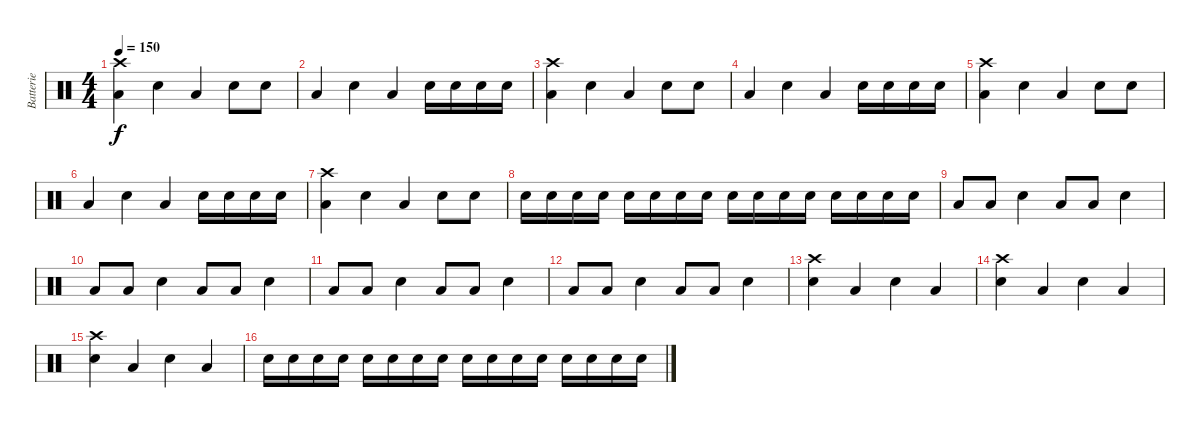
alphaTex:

\track ("Batterie" "Batterie") {instrument percussion}
\staff {score}
\articulation defaults
\ts (4 4)
\tempo 150
\clef neutral
\ks c
("Crash high (hit)" "Low Tom (hit)").4{dy f} "Snare (hit) 2".4 "Low Tom (hit)".4 "Snare (hit) 2".8 "Snare (hit) 2".8 |
"Low Tom (hit)".4 "Snare (hit) 2".4 "Low Tom (hit)".4 "Snare (hit) 2".16 "Snare (hit) 2".16 "Snare (hit) 2".16 "Snare (hit) 2".16 |
("Crash high (hit)" "Low Tom (hit)").4 "Snare (hit) 2".4 "Low Tom (hit)".4 "Snare (hit) 2".8 "Snare (hit) 2".8 |
"Low Tom (hit)".4 "Snare (hit) 2".4 "Low Tom (hit)".4 "Snare (hit) 2".16 "Snare (hit) 2".16 "Snare (hit) 2".16 "Snare (hit) 2".16 |
("Crash high (hit)" "Low Tom (hit)").4 "Snare (hit) 2".4 "Low Tom (hit)".4 "Snare (hit) 2".8 "Snare (hit) 2".8 |
"Low Tom (hit)".4 "Snare (hit) 2".4 "Low Tom (hit)".4 "Snare (hit) 2".16 "Snare (hit) 2".16 "Snare (hit) 2".16 "Snare (hit) 2".16 |
("Crash high (hit)" "Low Tom (hit)").4 "Snare (hit) 2".4 "Low Tom (hit)".4 "Snare (hit) 2".8 "Snare (hit) 2".8 |
"Snare (hit) 2".16 "Snare (hit) 2".16 "Snare (hit) 2".16 "Snare (hit) 2".16 "Snare (hit) 2".16 "Snare (hit) 2".16 "Snare (hit) 2".16 "Snare (hit) 2".16 "Snare (hit) 2".16 "Snare (hit) 2".16 "Snare (hit) 2".16 "Snare (hit) 2".16 "Snare (hit) 2".16 "Snare (hit) 2".16 "Snare (hit) 2".16 "Snare (hit) 2".16 |
"Low Tom (hit)".8 "Low Tom (hit)".8 "Snare (hit) 2".4 "Low Tom (hit)".8 "Low Tom (hit)".8 "Snare (hit) 2".4 |
"Low Tom (hit)".8 "Low Tom (hit)".8 "Snare (hit) 2".4 "Low Tom (hit)".8 "Low Tom (hit)".8 "Snare (hit) 2".4 |
"Low Tom (hit)".8 "Low Tom (hit)".8 "Snare (hit) 2".4 "Low Tom (hit)".8 "Low Tom (hit)".8 "Snare (hit) 2".4 |
"Low Tom (hit)".8 "Low Tom (hit)".8 "Snare (hit) 2".4 "Low Tom (hit)".8 "Low Tom (hit)".8 "Snare (hit) 2".4 |
("Crash high (hit)" "Snare (hit) 2").4 "Low Tom (hit)".4 "Snare (hit) 2".4 "Low Tom (hit)".4 |
("Crash high (hit)" "Snare (hit) 2").4 "Low Tom (hit)".4 "Snare (hit) 2".4 "Low Tom (hit)".4 |
("Crash high (hit)" "Snare (hit) 2").4 "Low Tom (hit)".4 "Snare (hit) 2".4 "Low Tom (hit)".4 |
"Snare (hit) 2".16 "Snare (hit) 2".16 "Snare (hit) 2".16 "Snare (hit) 2".16 "Snare (hit) 2".16 "Snare (hit) 2".16 "Snare (hit) 2".16 "Snare (hit) 2".16 "Snare (hit) 2".16 "Snare (hit) 2".16 "Snare (hit) 2".16 "Snare (hit) 2".16 "Snare (hit) 2".16 "Snare (hit) 2".16 "Snare (hit) 2".16 "Snare (hit) 2".16
